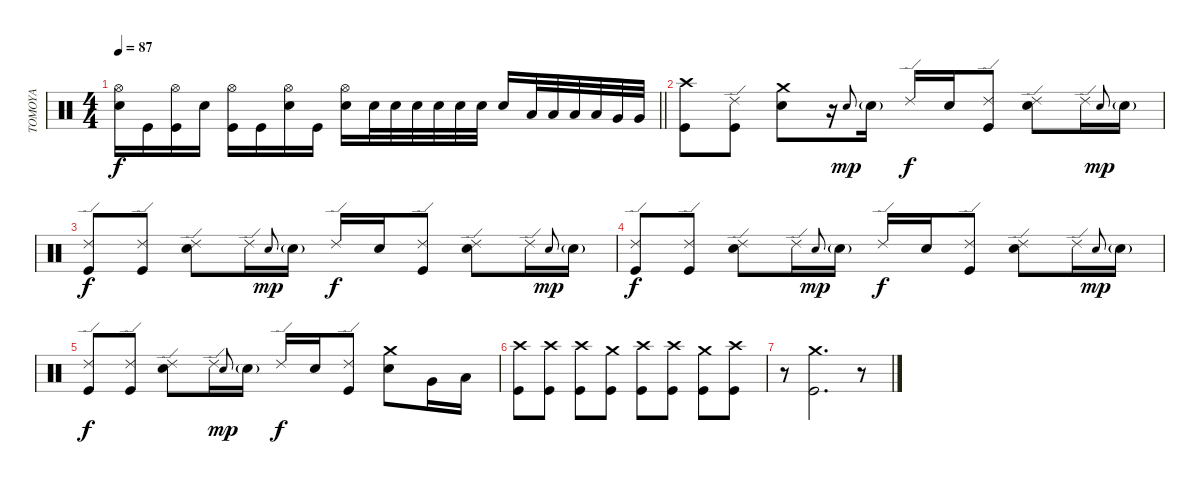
\track ("TOMOYA" "TOMOYA") {instrument percussion}
\staff {score}
\articulation defaults
\ts (4 4)
\tempo 87
\clef neutral
\barLineRight lightlight
\ks c
("Snare (hit) 2" "Hi-Hat (open)").16{dy f} "Kick (hit)".16 ("Kick (hit)" "Hi-Hat (open)").16 "Snare (hit) 2".16 ("Kick (hit)" "Hi-Hat (open)").16 "Kick (hit)".16 ("Snare (hit) 2" "Hi-Hat (open)").16 "Kick (hit)".16 ("Snare (hit) 2" "Hi-Hat (open)").16 "Snare (hit) 2".32 "Snare (hit) 2".32 "Snare (hit) 2".32 "Snare (hit) 2".32 "Snare (hit) 2".32 "Snare (hit) 2".32 "Snare (hit) 2".16 "Low Tom (hit)".32 "Low Tom (hit)".32 "Low Tom (hit)".32 "Low Tom (hit)".32 "Very Low Tom (hit)".32 "Very Low Tom (hit)".32 |
("Kick (hit)" "Crash high (hit)").8 ("Kick (hit)" "Ride (edge) 2").8 ("Snare (hit) 2" "Crash medium (hit)").8 r.16 "Snare (hit) 2".8{gr onbeat dy mp} "Snare (hit) 2"{g}.16 "Ride (edge) 2".16{dy f} "Snare (hit) 2".16 ("Kick (hit)" "Ride (edge) 2").8 ("Snare (hit) 2" "Ride (edge) 2").8 "Ride (edge) 2".16 "Snare (hit) 2".8{gr onbeat dy mp} "Snare (hit) 2"{g}.16 |
("Kick (hit)" "Ride (edge) 2").8{dy f} ("Kick (hit)" "Ride (edge) 2").8 ("Snare (hit) 2" "Ride (edge) 2").8 "Ride (edge) 2".16 "Snare (hit) 2".8{gr onbeat dy mp} "Snare (hit) 2"{g}.16 "Ride (edge) 2".16{dy f} "Snare (hit) 2".16 ("Kick (hit)" "Ride (edge) 2").8 ("Snare (hit) 2" "Ride (edge) 2").8 "Ride (edge) 2".16 "Snare (hit) 2".8{gr onbeat dy mp} "Snare (hit) 2"{g}.16 |
("Kick (hit)" "Ride (edge) 2").8{dy f} ("Kick (hit)" "Ride (edge) 2").8 ("Snare (hit) 2" "Ride (edge) 2").8 "Ride (edge) 2".16 "Snare (hit) 2".8{gr onbeat dy mp} "Snare (hit) 2"{g}.16 "Ride (edge) 2".16{dy f} "Snare (hit) 2".16 ("Kick (hit)" "Ride (edge) 2").8 ("Snare (hit) 2" "Ride (edge) 2").8 "Ride (edge) 2".16 "Snare (hit) 2".8{gr onbeat dy mp} "Snare (hit) 2"{g}.16 |
("Kick (hit)" "Ride (edge) 2").8{dy f} ("Kick (hit)" "Ride (edge) 2").8 ("Snare (hit) 2" "Ride (edge) 2").8 "Ride (edge) 2".16 "Snare (hit) 2".8{gr onbeat dy mp} "Snare (hit) 2"{g}.16 "Ride (edge) 2".16{dy f} "Snare (hit) 2".16 ("Kick (hit)" "Ride (edge) 2").8 ("Snare (hit) 2" "Crash medium (hit)").8 "Very Low Tom (hit)".16 "Low Floor Tom (hit)".16 |
("Kick (hit)" "Crash high (hit)").8 ("Kick (hit)" "Crash high (hit)").8 ("Kick (hit)" "Crash high (hit)").8 ("Kick (hit)" "Crash medium (hit)").8 ("Kick (hit)" "Crash high (hit)").8 ("Kick (hit)" "Crash high (hit)").8 ("Kick (hit)" "Crash medium (hit)").8 ("Kick (hit)" "Crash high (hit)").8 |
r.8 ("Kick (hit)" "Crash medium (hit)").2{d} r.8
